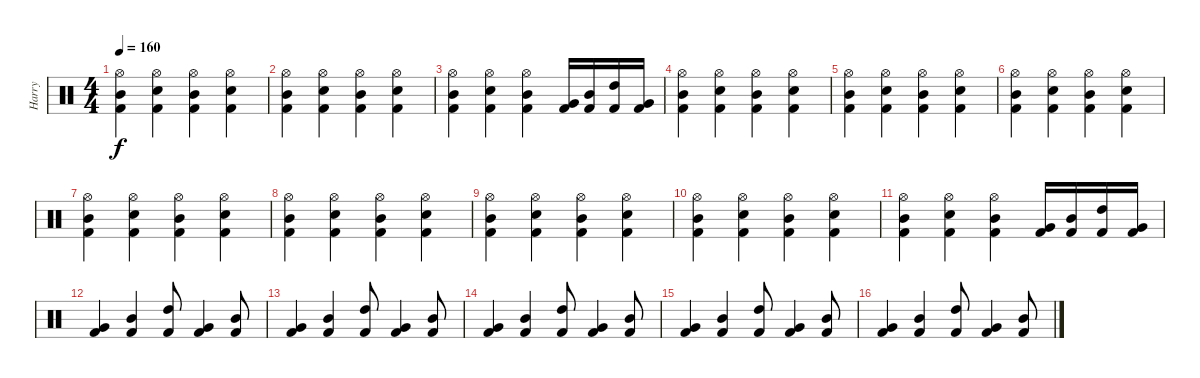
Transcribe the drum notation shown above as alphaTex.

\track ("Harry" "Harry") {instrument percussion}
\staff {score}
\articulation defaults
\ts (4 4)
\tempo 160
\clef neutral
\ks c
("Hi-Hat (open)" "Mid Tom (hit)" "Kick (hit) 2").4{dy f} ("Hi-Hat (open)" "Kick (hit) 2" "Snare (hit) 2").4 ("Hi-Hat (open)" "Mid Tom (hit)" "Kick (hit) 2").4 ("Hi-Hat (open)" "Kick (hit) 2" "Snare (hit) 2").4 |
("Hi-Hat (open)" "Mid Tom (hit)" "Kick (hit) 2").4 ("Hi-Hat (open)" "Kick (hit) 2" "Snare (hit) 2").4 ("Hi-Hat (open)" "Mid Tom (hit)" "Kick (hit) 2").4 ("Hi-Hat (open)" "Kick (hit) 2" "Snare (hit) 2").4 |
("Hi-Hat (open)" "Mid Tom (hit)" "Kick (hit) 2").4 ("Hi-Hat (open)" "Kick (hit) 2" "Snare (hit) 2").4 ("Hi-Hat (open)" "Mid Tom (hit)" "Kick (hit) 2").4 ("Very Low Tom (hit)" "Kick (hit) 2").16 ("Mid Tom (hit)" "Kick (hit) 2").16 ("High Tom (hit)" "Kick (hit) 2").16 ("Very Low Tom (hit)" "Kick (hit) 2").16 |
("Hi-Hat (open)" "Mid Tom (hit)" "Kick (hit) 2").4 ("Hi-Hat (open)" "Kick (hit) 2" "Snare (hit) 2").4 ("Hi-Hat (open)" "Mid Tom (hit)" "Kick (hit) 2").4 ("Hi-Hat (open)" "Kick (hit) 2" "Snare (hit) 2").4 |
("Hi-Hat (open)" "Mid Tom (hit)" "Kick (hit) 2").4 ("Hi-Hat (open)" "Kick (hit) 2" "Snare (hit) 2").4 ("Hi-Hat (open)" "Mid Tom (hit)" "Kick (hit) 2").4 ("Hi-Hat (open)" "Kick (hit) 2" "Snare (hit) 2").4 |
("Hi-Hat (open)" "Mid Tom (hit)" "Kick (hit) 2").4 ("Hi-Hat (open)" "Kick (hit) 2" "Snare (hit) 2").4 ("Hi-Hat (open)" "Mid Tom (hit)" "Kick (hit) 2").4 ("Hi-Hat (open)" "Kick (hit) 2" "Snare (hit) 2").4 |
("Hi-Hat (open)" "Mid Tom (hit)" "Kick (hit) 2").4 ("Hi-Hat (open)" "Kick (hit) 2" "Snare (hit) 2").4 ("Hi-Hat (open)" "Mid Tom (hit)" "Kick (hit) 2").4 ("Hi-Hat (open)" "Kick (hit) 2" "Snare (hit) 2").4 |
("Hi-Hat (open)" "Mid Tom (hit)" "Kick (hit) 2").4 ("Hi-Hat (open)" "Kick (hit) 2" "Snare (hit) 2").4 ("Hi-Hat (open)" "Mid Tom (hit)" "Kick (hit) 2").4 ("Hi-Hat (open)" "Kick (hit) 2" "Snare (hit) 2").4 |
("Hi-Hat (open)" "Mid Tom (hit)" "Kick (hit) 2").4 ("Hi-Hat (open)" "Kick (hit) 2" "Snare (hit) 2").4 ("Hi-Hat (open)" "Mid Tom (hit)" "Kick (hit) 2").4 ("Hi-Hat (open)" "Kick (hit) 2" "Snare (hit) 2").4 |
("Hi-Hat (open)" "Mid Tom (hit)" "Kick (hit) 2").4 ("Hi-Hat (open)" "Kick (hit) 2" "Snare (hit) 2").4 ("Hi-Hat (open)" "Mid Tom (hit)" "Kick (hit) 2").4 ("Hi-Hat (open)" "Kick (hit) 2" "Snare (hit) 2").4 |
("Hi-Hat (open)" "Mid Tom (hit)" "Kick (hit) 2").4 ("Hi-Hat (open)" "Kick (hit) 2" "Snare (hit) 2").4 ("Hi-Hat (open)" "Mid Tom (hit)" "Kick (hit) 2").4 ("Very Low Tom (hit)" "Kick (hit) 2").16 ("Mid Tom (hit)" "Kick (hit) 2").16 ("High Tom (hit)" "Kick (hit) 2").16 ("Very Low Tom (hit)" "Kick (hit) 2").16 |
("Kick (hit) 2" "Very Low Tom (hit)").4 ("Kick (hit) 2" "Mid Tom (hit)").4 ("Kick (hit) 2" "High Tom (hit)").8 ("Kick (hit) 2" "Very Low Tom (hit)").4 ("Kick (hit) 2" "Mid Tom (hit)").8 |
("Kick (hit) 2" "Very Low Tom (hit)").4 ("Kick (hit) 2" "Mid Tom (hit)").4 ("Kick (hit) 2" "High Tom (hit)").8 ("Kick (hit) 2" "Very Low Tom (hit)").4 ("Kick (hit) 2" "Mid Tom (hit)").8 |
("Kick (hit) 2" "Very Low Tom (hit)").4 ("Kick (hit) 2" "Mid Tom (hit)").4 ("Kick (hit) 2" "High Tom (hit)").8 ("Kick (hit) 2" "Very Low Tom (hit)").4 ("Kick (hit) 2" "Mid Tom (hit)").8 |
("Kick (hit) 2" "Very Low Tom (hit)").4 ("Kick (hit) 2" "Mid Tom (hit)").4 ("Kick (hit) 2" "High Tom (hit)").8 ("Kick (hit) 2" "Very Low Tom (hit)").4 ("Kick (hit) 2" "Mid Tom (hit)").8 |
("Kick (hit) 2" "Very Low Tom (hit)").4 ("Kick (hit) 2" "Mid Tom (hit)").4 ("Kick (hit) 2" "High Tom (hit)").8 ("Kick (hit) 2" "Very Low Tom (hit)").4 ("Kick (hit) 2" "Mid Tom (hit)").8
